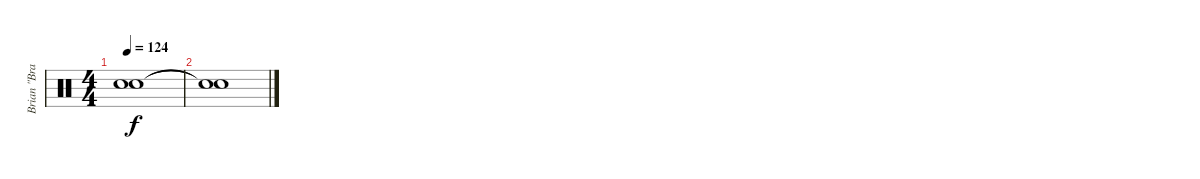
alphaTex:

\track ("Brian \"Brain\" Mantia / Drums" "Brian \"Bra") {instrument percussion}
\staff {score}
\articulation defaults
\ts (4 4)
\tempo 124
\clef neutral
\ks c
("Snare (hit)"{t} "Snare (hit)"{t}).1{dy f} |
("Snare (hit)"{t} "Snare (hit)"{t}).1
